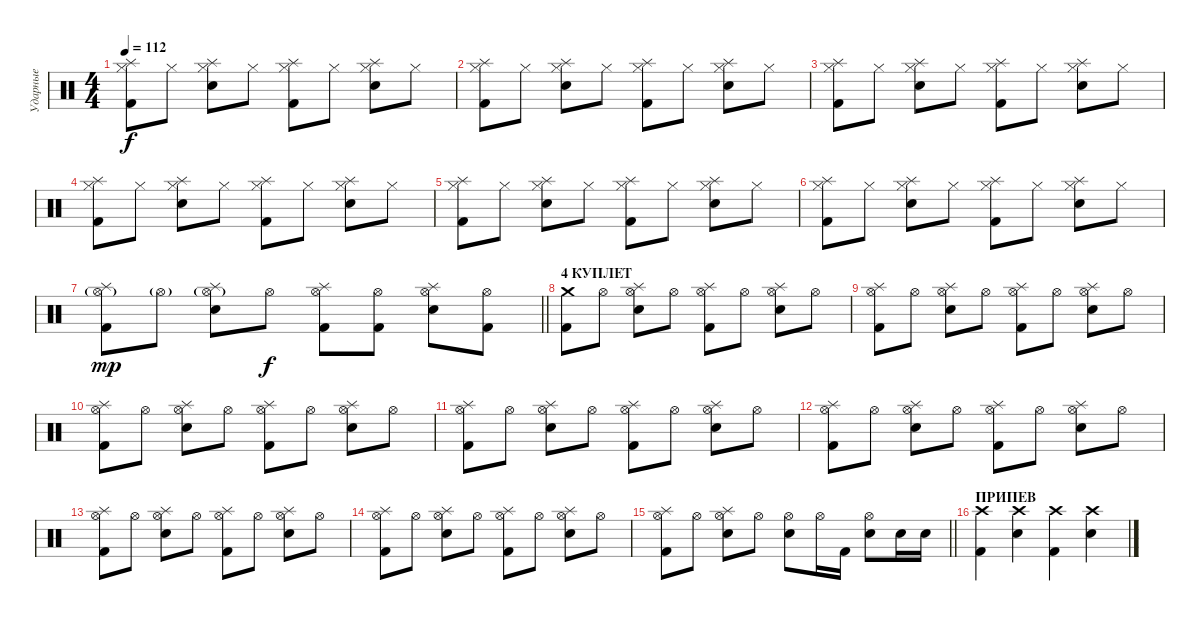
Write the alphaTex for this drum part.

\track ("Ударные" "Ударные") {instrument percussion}
\staff {score}
\articulation defaults
\ts (4 4)
\tempo 112
\clef neutral
\ks c
("Hi-Hat (closed)" "Splash (hit)" "Kick (hit) 2").8{dy f} "Hi-Hat (closed)".8 ("Hi-Hat (closed)" "Splash (hit)" "Snare (hit) 2").8 "Hi-Hat (closed)".8 ("Hi-Hat (closed)" "Splash (hit)" "Kick (hit) 2").8 "Hi-Hat (closed)".8 ("Hi-Hat (closed)" "Splash (hit)" "Snare (hit) 2").8 "Hi-Hat (closed)".8 |
("Hi-Hat (closed)" "Splash (hit)" "Kick (hit) 2").8 "Hi-Hat (closed)".8 ("Hi-Hat (closed)" "Splash (hit)" "Snare (hit) 2").8 "Hi-Hat (closed)".8 ("Hi-Hat (closed)" "Splash (hit)" "Kick (hit) 2").8 "Hi-Hat (closed)".8 ("Hi-Hat (closed)" "Splash (hit)" "Snare (hit) 2").8 "Hi-Hat (closed)".8 |
("Hi-Hat (closed)" "Splash (hit)" "Kick (hit) 2").8 "Hi-Hat (closed)".8 ("Hi-Hat (closed)" "Splash (hit)" "Snare (hit) 2").8 "Hi-Hat (closed)".8 ("Hi-Hat (closed)" "Splash (hit)" "Kick (hit) 2").8 "Hi-Hat (closed)".8 ("Hi-Hat (closed)" "Splash (hit)" "Snare (hit) 2").8 "Hi-Hat (closed)".8 |
("Hi-Hat (closed)" "Splash (hit)" "Kick (hit) 2").8 "Hi-Hat (closed)".8 ("Hi-Hat (closed)" "Splash (hit)" "Snare (hit) 2").8 "Hi-Hat (closed)".8 ("Hi-Hat (closed)" "Splash (hit)" "Kick (hit) 2").8 "Hi-Hat (closed)".8 ("Hi-Hat (closed)" "Splash (hit)" "Snare (hit) 2").8 "Hi-Hat (closed)".8 |
("Hi-Hat (closed)" "Splash (hit)" "Kick (hit) 2").8 "Hi-Hat (closed)".8 ("Hi-Hat (closed)" "Splash (hit)" "Snare (hit) 2").8 "Hi-Hat (closed)".8 ("Hi-Hat (closed)" "Splash (hit)" "Kick (hit) 2").8 "Hi-Hat (closed)".8 ("Hi-Hat (closed)" "Splash (hit)" "Snare (hit) 2").8 "Hi-Hat (closed)".8 |
("Hi-Hat (closed)" "Splash (hit)" "Kick (hit) 2").8 "Hi-Hat (closed)".8 ("Hi-Hat (closed)" "Splash (hit)" "Snare (hit) 2").8 "Hi-Hat (closed)".8 ("Hi-Hat (closed)" "Splash (hit)" "Kick (hit) 2").8 "Hi-Hat (closed)".8 ("Hi-Hat (closed)" "Splash (hit)" "Snare (hit) 2").8 "Hi-Hat (closed)".8 |
\barLineRight lightlight
("Hi-Hat (open)"{g} "Splash (hit)" "Kick (hit) 2").8{dy mp} "Hi-Hat (open)"{g}.8 ("Hi-Hat (open)"{g} "Splash (hit)" "Snare (hit) 2").8 "Hi-Hat (open)".8{dy f} ("Hi-Hat (open)" "Splash (hit)" "Kick (hit) 2").8 ("Hi-Hat (open)" "Kick (hit) 2").8 ("Hi-Hat (open)" "Splash (hit)" "Snare (hit) 2").8 ("Hi-Hat (open)" "Kick (hit) 2").8 |
\section ("" "4 КУПЛЕТ")
("Crash medium (hit)" "Kick (hit) 2").8 "Hi-Hat (open)".8 ("Hi-Hat (open)" "Splash (hit)" "Snare (hit) 2").8 "Hi-Hat (open)".8 ("Hi-Hat (open)" "Splash (hit)" "Kick (hit) 2").8 "Hi-Hat (open)".8 ("Hi-Hat (open)" "Splash (hit)" "Snare (hit) 2").8 "Hi-Hat (open)".8 |
("Hi-Hat (open)" "Splash (hit)" "Kick (hit) 2").8 "Hi-Hat (open)".8 ("Hi-Hat (open)" "Splash (hit)" "Snare (hit) 2").8 "Hi-Hat (open)".8 ("Hi-Hat (open)" "Splash (hit)" "Kick (hit) 2").8 "Hi-Hat (open)".8 ("Hi-Hat (open)" "Splash (hit)" "Snare (hit) 2").8 "Hi-Hat (open)".8 |
("Hi-Hat (open)" "Splash (hit)" "Kick (hit) 2").8 "Hi-Hat (open)".8 ("Hi-Hat (open)" "Splash (hit)" "Snare (hit) 2").8 "Hi-Hat (open)".8 ("Hi-Hat (open)" "Splash (hit)" "Kick (hit) 2").8 "Hi-Hat (open)".8 ("Hi-Hat (open)" "Splash (hit)" "Snare (hit) 2").8 "Hi-Hat (open)".8 |
("Hi-Hat (open)" "Splash (hit)" "Kick (hit) 2").8 "Hi-Hat (open)".8 ("Hi-Hat (open)" "Splash (hit)" "Snare (hit) 2").8 "Hi-Hat (open)".8 ("Hi-Hat (open)" "Splash (hit)" "Kick (hit) 2").8 "Hi-Hat (open)".8 ("Hi-Hat (open)" "Splash (hit)" "Snare (hit) 2").8 "Hi-Hat (open)".8 |
("Hi-Hat (open)" "Splash (hit)" "Kick (hit) 2").8 "Hi-Hat (open)".8 ("Hi-Hat (open)" "Splash (hit)" "Snare (hit) 2").8 "Hi-Hat (open)".8 ("Hi-Hat (open)" "Splash (hit)" "Kick (hit) 2").8 "Hi-Hat (open)".8 ("Hi-Hat (open)" "Splash (hit)" "Snare (hit) 2").8 "Hi-Hat (open)".8 |
("Hi-Hat (open)" "Splash (hit)" "Kick (hit) 2").8 "Hi-Hat (open)".8 ("Hi-Hat (open)" "Splash (hit)" "Snare (hit) 2").8 "Hi-Hat (open)".8 ("Hi-Hat (open)" "Splash (hit)" "Kick (hit) 2").8 "Hi-Hat (open)".8 ("Hi-Hat (open)" "Splash (hit)" "Snare (hit) 2").8 "Hi-Hat (open)".8 |
("Hi-Hat (open)" "Splash (hit)" "Kick (hit) 2").8 "Hi-Hat (open)".8 ("Hi-Hat (open)" "Splash (hit)" "Snare (hit) 2").8 "Hi-Hat (open)".8 ("Hi-Hat (open)" "Splash (hit)" "Kick (hit) 2").8 "Hi-Hat (open)".8 ("Hi-Hat (open)" "Splash (hit)" "Snare (hit) 2").8 "Hi-Hat (open)".8 |
\barLineRight lightlight
("Hi-Hat (open)" "Splash (hit)" "Kick (hit) 2").8 "Hi-Hat (open)".8 ("Hi-Hat (open)" "Splash (hit)" "Snare (hit) 2").8 "Hi-Hat (open)".8 ("Hi-Hat (open)" "Snare (hit) 2").8 "Hi-Hat (open)".16 "Kick (hit) 2".16 ("Hi-Hat (open)" "Snare (hit) 2").8 "Snare (hit) 2".16 "Snare (hit) 2".16 |
\section ("" "ПРИПЕВ")
("Crash high (hit)" "Kick (hit) 2").4 ("Crash high (hit)" "Snare (hit) 2").4 ("Crash high (hit)" "Kick (hit) 2").4 ("Crash high (hit)" "Snare (hit) 2").4
